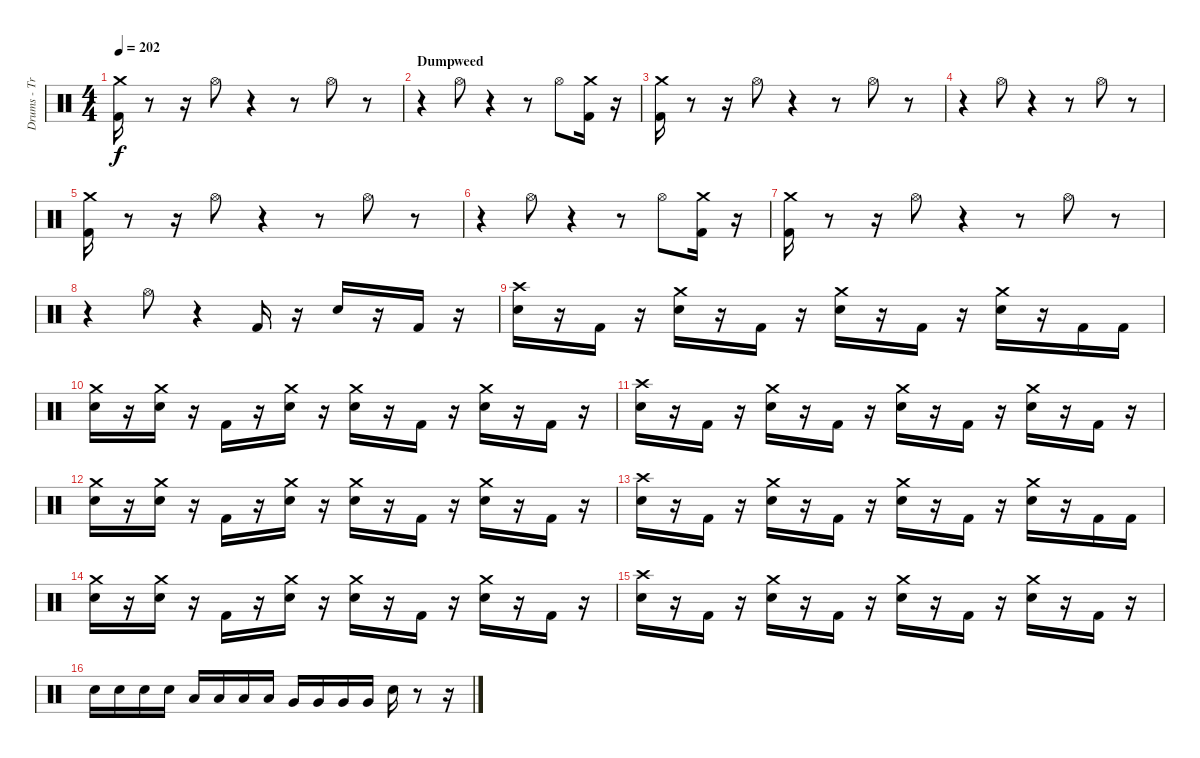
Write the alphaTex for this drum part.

\track ("Drums - Travis Barker" "Drums - Tr") {instrument percussion}
\staff {score}
\articulation defaults
\ts (4 4)
\section ("" "")
\tempo 202
\tempo 200
\tempo 202
\clef neutral
\ks c
("Kick (hit) 2" "Crash medium (hit)").16{dy f} r.8 r.16 "Hi-Hat (open)".8 r.4 r.8 "Hi-Hat (open)".8 r.8 |
\section ("" "Dumpweed")
r.4 "Hi-Hat (open)".8 r.4 r.8 "Hi-Hat (open)".8 ("Kick (hit) 2" "Crash medium (hit)").16 r.16 |
("Kick (hit) 2" "Crash medium (hit)").16 r.8 r.16 "Hi-Hat (open)".8 r.4 r.8 "Hi-Hat (open)".8 r.8 |
r.4 "Hi-Hat (open)".8 r.4 r.8 "Hi-Hat (open)".8 r.8 |
("Kick (hit) 2" "Crash medium (hit)").16 r.8 r.16 "Hi-Hat (open)".8 r.4 r.8 "Hi-Hat (open)".8 r.8 |
r.4 "Hi-Hat (open)".8 r.4 r.8 "Hi-Hat (open)".8 ("Kick (hit) 2" "Crash medium (hit)").16 r.16 |
("Kick (hit) 2" "Crash medium (hit)").16 r.8 r.16 "Hi-Hat (open)".8 r.4 r.8 "Hi-Hat (open)".8 r.8 |
r.4 "Hi-Hat (open)".8 r.4 "Kick (hit) 2".16 r.16 "Electric Snare (hit)".16 r.16 "Kick (hit) 2".16 r.16 |
("Electric Snare (hit)" "Crash high (hit)").16 r.16 "Kick (hit) 2".16 r.16 ("Electric Snare (hit)" "Crash medium (hit)").16 r.16 "Kick (hit) 2".16 r.16 ("Electric Snare (hit)" "Crash medium (hit)").16 r.16 "Kick (hit) 2".16 r.16 ("Electric Snare (hit)" "Crash medium (hit)").16 r.16 "Kick (hit) 2".16 "Kick (hit) 2".16 |
("Electric Snare (hit)" "Crash medium (hit)").16 r.16 ("Electric Snare (hit)" "Crash medium (hit)").16 r.16 "Kick (hit) 2".16 r.16 ("Electric Snare (hit)" "Crash medium (hit)").16 r.16 ("Electric Snare (hit)" "Crash medium (hit)").16 r.16 "Kick (hit) 2".16 r.16 ("Electric Snare (hit)" "Crash medium (hit)").16 r.16 "Kick (hit) 2".16 r.16 |
("Electric Snare (hit)" "Crash high (hit)").16 r.16 "Kick (hit) 2".16 r.16 ("Electric Snare (hit)" "Crash medium (hit)").16 r.16 "Kick (hit) 2".16 r.16 ("Electric Snare (hit)" "Crash medium (hit)").16 r.16 "Kick (hit) 2".16 r.16 ("Electric Snare (hit)" "Crash medium (hit)").16 r.16 "Kick (hit) 2".16 r.16 |
("Electric Snare (hit)" "Crash medium (hit)").16 r.16 ("Electric Snare (hit)" "Crash medium (hit)").16 r.16 "Kick (hit) 2".16 r.16 ("Electric Snare (hit)" "Crash medium (hit)").16 r.16 ("Electric Snare (hit)" "Crash medium (hit)").16 r.16 "Kick (hit) 2".16 r.16 ("Electric Snare (hit)" "Crash medium (hit)").16 r.16 "Kick (hit) 2".16 r.16 |
("Electric Snare (hit)" "Crash high (hit)").16 r.16 "Kick (hit) 2".16 r.16 ("Electric Snare (hit)" "Crash medium (hit)").16 r.16 "Kick (hit) 2".16 r.16 ("Electric Snare (hit)" "Crash medium (hit)").16 r.16 "Kick (hit) 2".16 r.16 ("Electric Snare (hit)" "Crash medium (hit)").16 r.16 "Kick (hit) 2".16 "Kick (hit) 2".16 |
("Electric Snare (hit)" "Crash medium (hit)").16 r.16 ("Electric Snare (hit)" "Crash medium (hit)").16 r.16 "Kick (hit) 2".16 r.16 ("Electric Snare (hit)" "Crash medium (hit)").16 r.16 ("Electric Snare (hit)" "Crash medium (hit)").16 r.16 "Kick (hit) 2".16 r.16 ("Electric Snare (hit)" "Crash medium (hit)").16 r.16 "Kick (hit) 2".16 r.16 |
("Electric Snare (hit)" "Crash high (hit)").16 r.16 "Kick (hit) 2".16 r.16 ("Electric Snare (hit)" "Crash medium (hit)").16 r.16 "Kick (hit) 2".16 r.16 ("Electric Snare (hit)" "Crash medium (hit)").16 r.16 "Kick (hit) 2".16 r.16 ("Electric Snare (hit)" "Crash medium (hit)").16 r.16 "Kick (hit) 2".16 r.16 |
"Electric Snare (hit)".16 "Electric Snare (hit)".16 "Electric Snare (hit)".16 "Electric Snare (hit)".16 "Low Tom (hit)".16 "Low Tom (hit)".16 "Low Tom (hit)".16 "Low Tom (hit)".16 "Very Low Tom (hit)".16 "Very Low Tom (hit)".16 "Very Low Tom (hit)".16 "Very Low Tom (hit)".16 "Electric Snare (hit)".16 r.8 r.16
